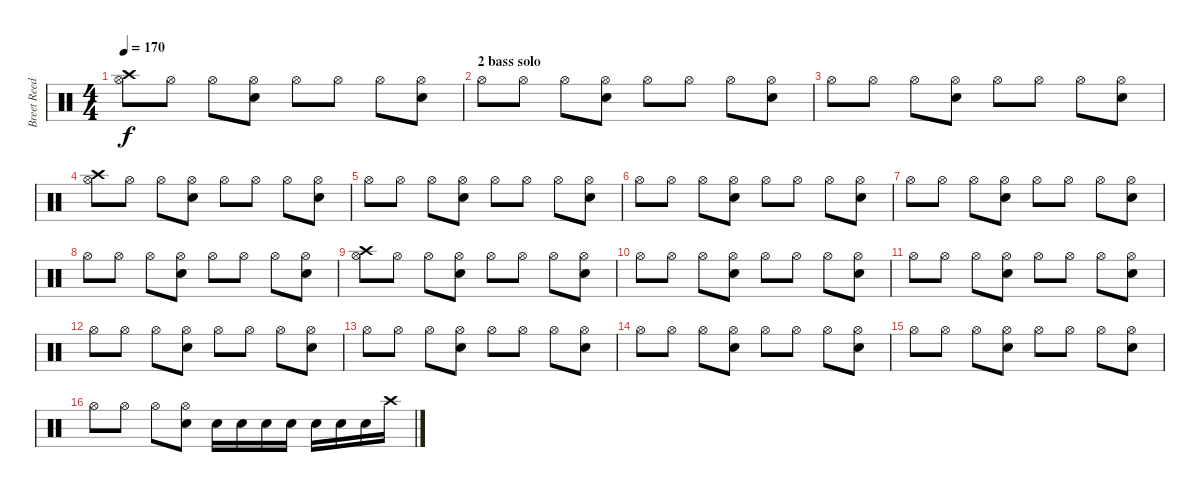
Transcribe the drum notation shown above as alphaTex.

\track ("Breet Reed" "Breet Reed") {instrument percussion}
\staff {score}
\articulation defaults
\ts (4 4)
\tempo 170
\clef neutral
\ks c
("Crash high (hit)" "Hi-Hat (open)").8{dy f} "Hi-Hat (open)".8 "Hi-Hat (open)".8 ("Snare (hit) 2" "Hi-Hat (open)").8 "Hi-Hat (open)".8 "Hi-Hat (open)".8 "Hi-Hat (open)".8 ("Snare (hit) 2" "Hi-Hat (open)").8 |
\section ("" "2 bass solo")
"Hi-Hat (open)".8 "Hi-Hat (open)".8 "Hi-Hat (open)".8 ("Snare (hit) 2" "Hi-Hat (open)").8 "Hi-Hat (open)".8 "Hi-Hat (open)".8 "Hi-Hat (open)".8 ("Snare (hit) 2" "Hi-Hat (open)").8 |
"Hi-Hat (open)".8 "Hi-Hat (open)".8 "Hi-Hat (open)".8 ("Snare (hit) 2" "Hi-Hat (open)").8 "Hi-Hat (open)".8 "Hi-Hat (open)".8 "Hi-Hat (open)".8 ("Snare (hit) 2" "Hi-Hat (open)").8 |
("Crash high (hit)" "Hi-Hat (open)").8 "Hi-Hat (open)".8 "Hi-Hat (open)".8 ("Snare (hit) 2" "Hi-Hat (open)").8 "Hi-Hat (open)".8 "Hi-Hat (open)".8 "Hi-Hat (open)".8 ("Snare (hit) 2" "Hi-Hat (open)").8 |
"Hi-Hat (open)".8 "Hi-Hat (open)".8 "Hi-Hat (open)".8 ("Snare (hit) 2" "Hi-Hat (open)").8 "Hi-Hat (open)".8 "Hi-Hat (open)".8 "Hi-Hat (open)".8 ("Snare (hit) 2" "Hi-Hat (open)").8 |
"Hi-Hat (open)".8 "Hi-Hat (open)".8 "Hi-Hat (open)".8 ("Snare (hit) 2" "Hi-Hat (open)").8 "Hi-Hat (open)".8 "Hi-Hat (open)".8 "Hi-Hat (open)".8 ("Snare (hit) 2" "Hi-Hat (open)").8 |
"Hi-Hat (open)".8 "Hi-Hat (open)".8 "Hi-Hat (open)".8 ("Snare (hit) 2" "Hi-Hat (open)").8 "Hi-Hat (open)".8 "Hi-Hat (open)".8 "Hi-Hat (open)".8 ("Snare (hit) 2" "Hi-Hat (open)").8 |
"Hi-Hat (open)".8 "Hi-Hat (open)".8 "Hi-Hat (open)".8 ("Snare (hit) 2" "Hi-Hat (open)").8 "Hi-Hat (open)".8 "Hi-Hat (open)".8 "Hi-Hat (open)".8 ("Snare (hit) 2" "Hi-Hat (open)").8 |
("Crash high (hit)" "Hi-Hat (open)").8 "Hi-Hat (open)".8 "Hi-Hat (open)".8 ("Snare (hit) 2" "Hi-Hat (open)").8 "Hi-Hat (open)".8 "Hi-Hat (open)".8 "Hi-Hat (open)".8 ("Snare (hit) 2" "Hi-Hat (open)").8 |
"Hi-Hat (open)".8 "Hi-Hat (open)".8 "Hi-Hat (open)".8 ("Snare (hit) 2" "Hi-Hat (open)").8 "Hi-Hat (open)".8 "Hi-Hat (open)".8 "Hi-Hat (open)".8 ("Snare (hit) 2" "Hi-Hat (open)").8 |
"Hi-Hat (open)".8 "Hi-Hat (open)".8 "Hi-Hat (open)".8 ("Snare (hit) 2" "Hi-Hat (open)").8 "Hi-Hat (open)".8 "Hi-Hat (open)".8 "Hi-Hat (open)".8 ("Snare (hit) 2" "Hi-Hat (open)").8 |
"Hi-Hat (open)".8 "Hi-Hat (open)".8 "Hi-Hat (open)".8 ("Snare (hit) 2" "Hi-Hat (open)").8 "Hi-Hat (open)".8 "Hi-Hat (open)".8 "Hi-Hat (open)".8 ("Snare (hit) 2" "Hi-Hat (open)").8 |
"Hi-Hat (open)".8 "Hi-Hat (open)".8 "Hi-Hat (open)".8 ("Snare (hit) 2" "Hi-Hat (open)").8 "Hi-Hat (open)".8 "Hi-Hat (open)".8 "Hi-Hat (open)".8 ("Snare (hit) 2" "Hi-Hat (open)").8 |
"Hi-Hat (open)".8 "Hi-Hat (open)".8 "Hi-Hat (open)".8 ("Snare (hit) 2" "Hi-Hat (open)").8 "Hi-Hat (open)".8 "Hi-Hat (open)".8 "Hi-Hat (open)".8 ("Snare (hit) 2" "Hi-Hat (open)").8 |
"Hi-Hat (open)".8 "Hi-Hat (open)".8 "Hi-Hat (open)".8 ("Snare (hit) 2" "Hi-Hat (open)").8 "Hi-Hat (open)".8 "Hi-Hat (open)".8 "Hi-Hat (open)".8 ("Snare (hit) 2" "Hi-Hat (open)").8 |
"Hi-Hat (open)".8 "Hi-Hat (open)".8 "Hi-Hat (open)".8 ("Snare (hit) 2" "Hi-Hat (open)").8 "Snare (hit) 2".16 "Snare (hit) 2".16 "Snare (hit) 2".16 "Snare (hit) 2".16 "Snare (hit) 2".16 "Snare (hit) 2".16 "Snare (hit) 2".16 "Crash high (hit)".16
